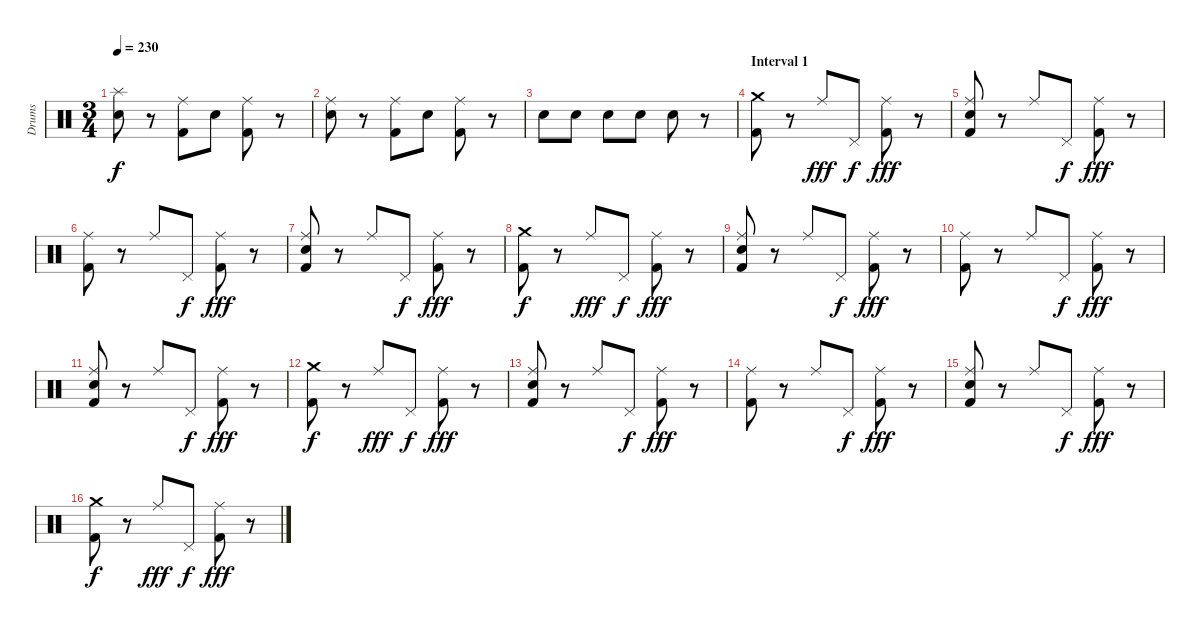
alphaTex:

\track ("Drums" "Drums") {instrument percussion}
\staff {score}
\articulation defaults
\ts (3 4)
\tempo 230
\clef neutral
\ks c
("Splash (hit)" "Electric Snare (hit)").8{dy f} r.8 ("Ride (middle)" "Kick (hit) 2").8 "Electric Snare (hit)".8 ("Ride (middle)" "Kick (hit) 2").8 r.8 |
("Ride (middle)" "Electric Snare (hit)").8 r.8 ("Ride (middle)" "Kick (hit) 2").8 "Electric Snare (hit)".8 ("Ride (middle)" "Kick (hit) 2").8 r.8 |
"Electric Snare (hit)".8 "Electric Snare (hit)".8 "Electric Snare (hit)".8 "Electric Snare (hit)".8 "Electric Snare (hit)".8 r.8 |
\section ("" "Interval 1")
("Crash medium (hit)" "Kick (hit) 2").8 r.8 "Ride (middle)".8{dy fff} "Pedal Hi-Hat (hit)".8{dy f} ("Ride (middle)" "Kick (hit) 2").8{dy fff} r.8 |
("Ride (middle)" "Electric Snare (hit)" "Kick (hit) 2").8 r.8 "Ride (middle)".8 "Pedal Hi-Hat (hit)".8{dy f} ("Ride (middle)" "Kick (hit) 2").8{dy fff} r.8 |
("Ride (middle)" "Kick (hit) 2").8 r.8 "Ride (middle)".8 "Pedal Hi-Hat (hit)".8{dy f} ("Ride (middle)" "Kick (hit) 2").8{dy fff} r.8 |
("Ride (middle)" "Electric Snare (hit)" "Kick (hit) 2").8 r.8 "Ride (middle)".8 "Pedal Hi-Hat (hit)".8{dy f} ("Ride (middle)" "Kick (hit) 2").8{dy fff} r.8 |
("Crash medium (hit)" "Kick (hit) 2").8{dy f} r.8 "Ride (middle)".8{dy fff} "Pedal Hi-Hat (hit)".8{dy f} ("Ride (middle)" "Kick (hit) 2").8{dy fff} r.8 |
("Ride (middle)" "Electric Snare (hit)" "Kick (hit) 2").8 r.8 "Ride (middle)".8 "Pedal Hi-Hat (hit)".8{dy f} ("Ride (middle)" "Kick (hit) 2").8{dy fff} r.8 |
("Ride (middle)" "Kick (hit) 2").8 r.8 "Ride (middle)".8 "Pedal Hi-Hat (hit)".8{dy f} ("Ride (middle)" "Kick (hit) 2").8{dy fff} r.8 |
("Ride (middle)" "Electric Snare (hit)" "Kick (hit) 2").8 r.8 "Ride (middle)".8 "Pedal Hi-Hat (hit)".8{dy f} ("Ride (middle)" "Kick (hit) 2").8{dy fff} r.8 |
("Crash medium (hit)" "Kick (hit) 2").8{dy f} r.8 "Ride (middle)".8{dy fff} "Pedal Hi-Hat (hit)".8{dy f} ("Ride (middle)" "Kick (hit) 2").8{dy fff} r.8 |
("Ride (middle)" "Electric Snare (hit)" "Kick (hit) 2").8 r.8 "Ride (middle)".8 "Pedal Hi-Hat (hit)".8{dy f} ("Ride (middle)" "Kick (hit) 2").8{dy fff} r.8 |
("Ride (middle)" "Kick (hit) 2").8 r.8 "Ride (middle)".8 "Pedal Hi-Hat (hit)".8{dy f} ("Ride (middle)" "Kick (hit) 2").8{dy fff} r.8 |
("Ride (middle)" "Electric Snare (hit)" "Kick (hit) 2").8 r.8 "Ride (middle)".8 "Pedal Hi-Hat (hit)".8{dy f} ("Ride (middle)" "Kick (hit) 2").8{dy fff} r.8 |
("Crash medium (hit)" "Kick (hit) 2").8{dy f} r.8 "Ride (middle)".8{dy fff} "Pedal Hi-Hat (hit)".8{dy f} ("Ride (middle)" "Kick (hit) 2").8{dy fff} r.8
